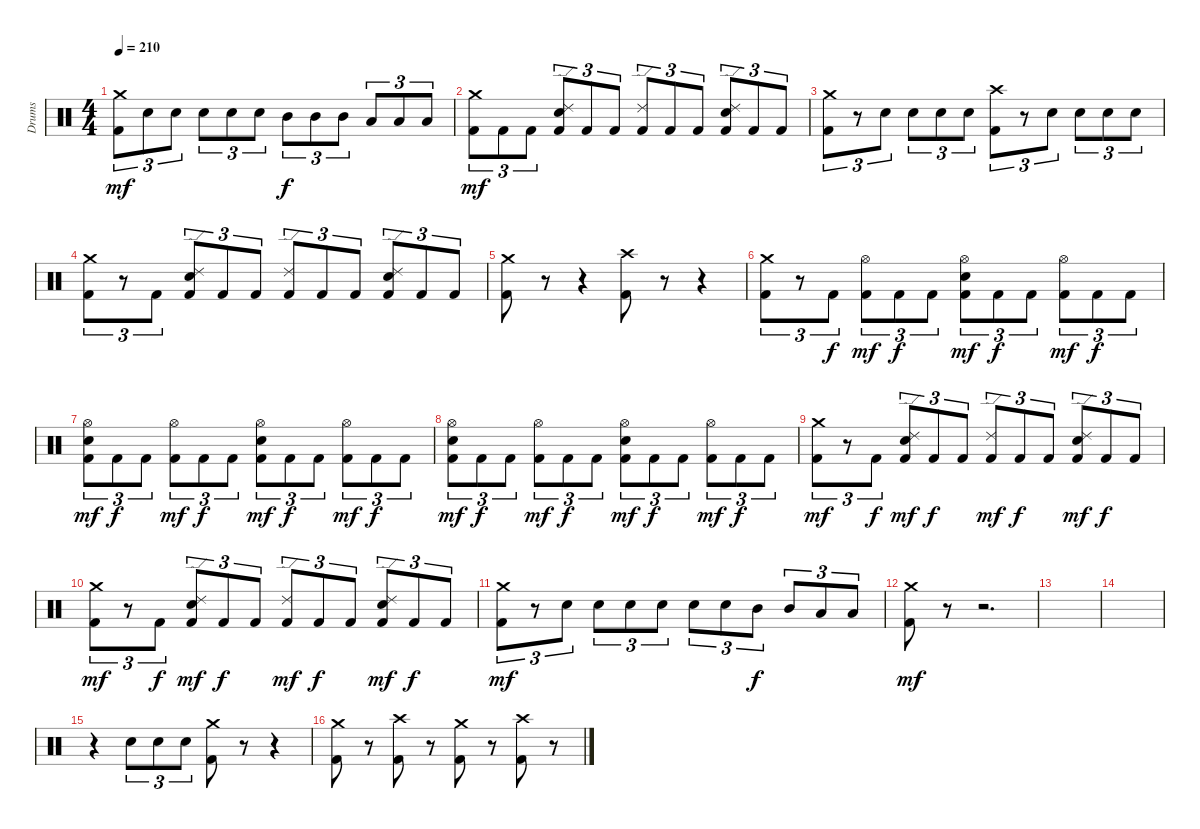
\track ("Drums" "Drums") {instrument percussion}
\staff {score}
\articulation defaults
\ts (4 4)
\tempo 210
\clef neutral
\ks c
("Crash medium (hit)" "Kick (hit) 2").8{tu (3 2) dy mf} "Electric Snare (hit)".8{tu (3 2)} "Electric Snare (hit)".8{tu (3 2)} "Electric Snare (hit)".8{tu (3 2)} "Electric Snare (hit)".8{tu (3 2)} "Electric Snare (hit)".8{tu (3 2)} "Mid Tom (hit)".8{tu (3 2) dy f} "Mid Tom (hit)".8{tu (3 2)} "Mid Tom (hit)".8{tu (3 2)} "Low Tom (hit)".8{tu (3 2)} "Low Tom (hit)".8{tu (3 2)} "Low Tom (hit)".8{tu (3 2)} |
("Crash medium (hit)" "Kick (hit) 2").8{tu (3 2) dy mf} "Kick (hit) 2".8{tu (3 2)} "Kick (hit) 2".8{tu (3 2)} ("Ride (edge) 2" "Electric Snare (hit)" "Kick (hit) 2").8{tu (3 2)} "Kick (hit) 2".8{tu (3 2)} "Kick (hit) 2".8{tu (3 2)} ("Ride (edge) 2" "Kick (hit) 2").8{tu (3 2)} "Kick (hit) 2".8{tu (3 2)} "Kick (hit) 2".8{tu (3 2)} ("Ride (edge) 2" "Electric Snare (hit)" "Kick (hit) 2").8{tu (3 2)} "Kick (hit) 2".8{tu (3 2)} "Kick (hit) 2".8{tu (3 2)} |
("Crash medium (hit)" "Kick (hit) 2").8{tu (3 2)} r.8{tu (3 2)} "Electric Snare (hit)".8{tu (3 2)} "Electric Snare (hit)".8{tu (3 2)} "Electric Snare (hit)".8{tu (3 2)} "Electric Snare (hit)".8{tu (3 2)} ("Crash high (hit)" "Kick (hit) 2").8{tu (3 2)} r.8{tu (3 2)} "Electric Snare (hit)".8{tu (3 2)} "Electric Snare (hit)".8{tu (3 2)} "Electric Snare (hit)".8{tu (3 2)} "Electric Snare (hit)".8{tu (3 2)} |
("Crash medium (hit)" "Kick (hit) 2").8{tu (3 2)} r.8{tu (3 2)} "Kick (hit) 2".8{tu (3 2)} ("Ride (edge) 2" "Electric Snare (hit)" "Kick (hit) 2").8{tu (3 2)} "Kick (hit) 2".8{tu (3 2)} "Kick (hit) 2".8{tu (3 2)} ("Ride (edge) 2" "Kick (hit) 2").8{tu (3 2)} "Kick (hit) 2".8{tu (3 2)} "Kick (hit) 2".8{tu (3 2)} ("Ride (edge) 2" "Electric Snare (hit)" "Kick (hit) 2").8{tu (3 2)} "Kick (hit) 2".8{tu (3 2)} "Kick (hit) 2".8{tu (3 2)} |
("Crash medium (hit)" "Kick (hit) 2").8 r.8 r.4 ("Crash high (hit)" "Kick (hit) 2").8 r.8 r.4 |
("Crash medium (hit)" "Kick (hit) 2").8{tu (3 2)} r.8{tu (3 2)} "Kick (hit) 2".8{tu (3 2) dy f} ("Hi-Hat (open)" "Kick (hit) 2").8{tu (3 2) dy mf} "Kick (hit) 2".8{tu (3 2) dy f} "Kick (hit) 2".8{tu (3 2)} ("Hi-Hat (open)" "Electric Snare (hit)" "Kick (hit) 2").8{tu (3 2) dy mf} "Kick (hit) 2".8{tu (3 2) dy f} "Kick (hit) 2".8{tu (3 2)} ("Hi-Hat (open)" "Kick (hit) 2").8{tu (3 2) dy mf} "Kick (hit) 2".8{tu (3 2) dy f} "Kick (hit) 2".8{tu (3 2)} |
("Hi-Hat (open)" "Electric Snare (hit)" "Kick (hit) 2").8{tu (3 2) dy mf} "Kick (hit) 2".8{tu (3 2) dy f} "Kick (hit) 2".8{tu (3 2)} ("Hi-Hat (open)" "Kick (hit) 2").8{tu (3 2) dy mf} "Kick (hit) 2".8{tu (3 2) dy f} "Kick (hit) 2".8{tu (3 2)} ("Hi-Hat (open)" "Electric Snare (hit)" "Kick (hit) 2").8{tu (3 2) dy mf} "Kick (hit) 2".8{tu (3 2) dy f} "Kick (hit) 2".8{tu (3 2)} ("Hi-Hat (open)" "Kick (hit) 2").8{tu (3 2) dy mf} "Kick (hit) 2".8{tu (3 2) dy f} "Kick (hit) 2".8{tu (3 2)} |
("Hi-Hat (open)" "Electric Snare (hit)" "Kick (hit) 2").8{tu (3 2) dy mf} "Kick (hit) 2".8{tu (3 2) dy f} "Kick (hit) 2".8{tu (3 2)} ("Hi-Hat (open)" "Kick (hit) 2").8{tu (3 2) dy mf} "Kick (hit) 2".8{tu (3 2) dy f} "Kick (hit) 2".8{tu (3 2)} ("Hi-Hat (open)" "Electric Snare (hit)" "Kick (hit) 2").8{tu (3 2) dy mf} "Kick (hit) 2".8{tu (3 2) dy f} "Kick (hit) 2".8{tu (3 2)} ("Hi-Hat (open)" "Kick (hit) 2").8{tu (3 2) dy mf} "Kick (hit) 2".8{tu (3 2) dy f} "Kick (hit) 2".8{tu (3 2)} |
("Crash medium (hit)" "Kick (hit) 2").8{tu (3 2) dy mf} r.8{tu (3 2)} "Kick (hit) 2".8{tu (3 2) dy f} ("Ride (edge) 2" "Electric Snare (hit)" "Kick (hit) 2").8{tu (3 2) dy mf} "Kick (hit) 2".8{tu (3 2) dy f} "Kick (hit) 2".8{tu (3 2)} ("Ride (edge) 2" "Kick (hit) 2").8{tu (3 2) dy mf} "Kick (hit) 2".8{tu (3 2) dy f} "Kick (hit) 2".8{tu (3 2)} ("Ride (edge) 2" "Electric Snare (hit)" "Kick (hit) 2").8{tu (3 2) dy mf} "Kick (hit) 2".8{tu (3 2) dy f} "Kick (hit) 2".8{tu (3 2)} |
("Crash medium (hit)" "Kick (hit) 2").8{tu (3 2) dy mf} r.8{tu (3 2)} "Kick (hit) 2".8{tu (3 2) dy f} ("Ride (edge) 2" "Electric Snare (hit)" "Kick (hit) 2").8{tu (3 2) dy mf} "Kick (hit) 2".8{tu (3 2) dy f} "Kick (hit) 2".8{tu (3 2)} ("Ride (edge) 2" "Kick (hit) 2").8{tu (3 2) dy mf} "Kick (hit) 2".8{tu (3 2) dy f} "Kick (hit) 2".8{tu (3 2)} ("Ride (edge) 2" "Electric Snare (hit)" "Kick (hit) 2").8{tu (3 2) dy mf} "Kick (hit) 2".8{tu (3 2) dy f} "Kick (hit) 2".8{tu (3 2)} |
("Crash medium (hit)" "Kick (hit) 2").8{tu (3 2) dy mf} r.8{tu (3 2)} "Electric Snare (hit)".8{tu (3 2)} "Electric Snare (hit)".8{tu (3 2)} "Electric Snare (hit)".8{tu (3 2)} "Electric Snare (hit)".8{tu (3 2)} "Electric Snare (hit)".8{tu (3 2)} "Electric Snare (hit)".8{tu (3 2)} "Mid Tom (hit)".8{tu (3 2) dy f} "Mid Tom (hit)".8{tu (3 2)} "Low Tom (hit)".8{tu (3 2)} "Low Tom (hit)".8{tu (3 2)} |
("Crash medium (hit)" "Kick (hit) 2").8{dy mf} r.8 r.2{d} |
|
|
r.4 "Electric Snare (hit)".8{tu (3 2)} "Electric Snare (hit)".8{tu (3 2)} "Electric Snare (hit)".8{tu (3 2)} ("Crash medium (hit)" "Kick (hit) 2").8 r.8 r.4 |
("Crash medium (hit)" "Kick (hit) 2").8 r.8 ("Crash high (hit)" "Kick (hit) 2").8 r.8 ("Crash medium (hit)" "Kick (hit) 2").8 r.8 ("Crash high (hit)" "Kick (hit) 2").8 r.8
